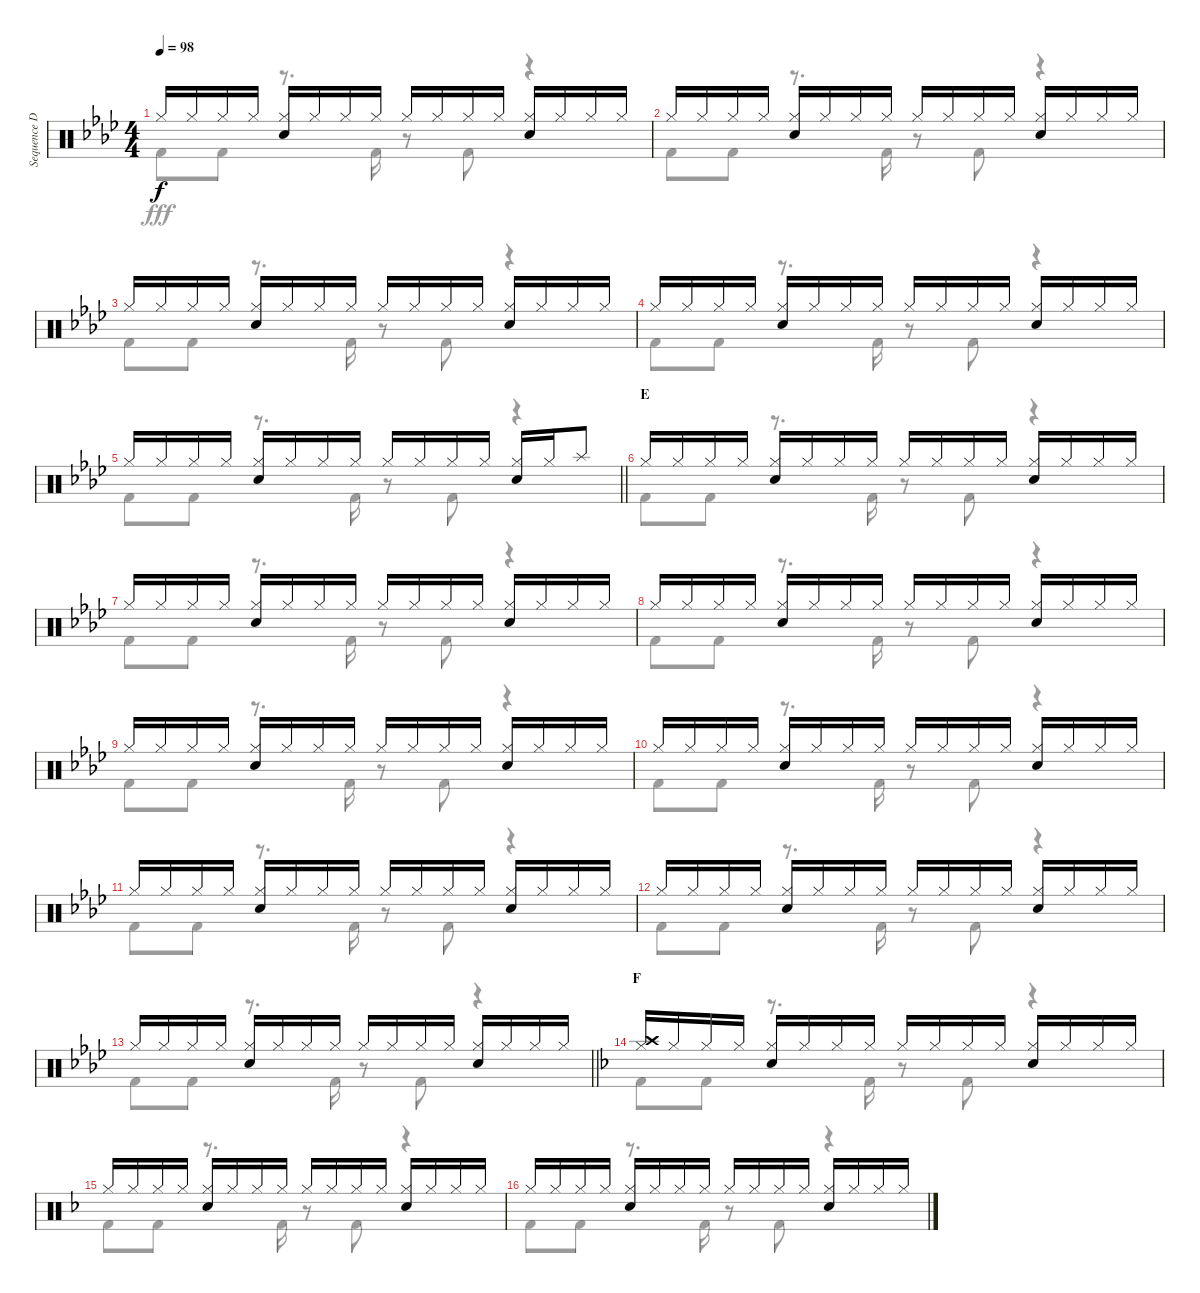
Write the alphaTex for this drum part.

\track ("Sequence Drums I" "Sequence D") {instrument percussion}
\staff {score}
\articulation defaults
\voice
\ts (4 4)
\tempo 98
\clef neutral
\ks ab "Hi-Hat (closed)".16{dy f} "Hi-Hat (closed)".16 "Hi-Hat (closed)".16 "Hi-Hat (closed)".16
("Hi-Hat (closed)" "Electric Snare (hit)").16 "Hi-Hat (closed)".16 "Hi-Hat (closed)".16 "Hi-Hat (closed)".16 "Hi-Hat (closed)".16 "Hi-Hat (closed)".16 "Hi-Hat (closed)".16 "Hi-Hat (closed)".16 ("Hi-Hat (closed)" "Electric Snare (hit)").16 "Hi-Hat (closed)".16 "Hi-Hat (closed)".16 "Hi-Hat (closed)".16 |
"Hi-Hat (closed)".16 "Hi-Hat (closed)".16 "Hi-Hat (closed)".16 "Hi-Hat (closed)".16 ("Hi-Hat (closed)" "Electric Snare (hit)").16 "Hi-Hat (closed)".16 "Hi-Hat (closed)".16 "Hi-Hat (closed)".16 "Hi-Hat (closed)".16 "Hi-Hat (closed)".16 "Hi-Hat (closed)".16 "Hi-Hat (closed)".16 ("Hi-Hat (closed)" "Electric Snare (hit)").16 "Hi-Hat (closed)".16 "Hi-Hat (closed)".16 "Hi-Hat (closed)".16 |
"Hi-Hat (closed)".16 "Hi-Hat (closed)".16 "Hi-Hat (closed)".16 "Hi-Hat (closed)".16 ("Hi-Hat (closed)" "Electric Snare (hit)").16 "Hi-Hat (closed)".16 "Hi-Hat (closed)".16 "Hi-Hat (closed)".16 "Hi-Hat (closed)".16 "Hi-Hat (closed)".16 "Hi-Hat (closed)".16 "Hi-Hat (closed)".16 ("Hi-Hat (closed)" "Electric Snare (hit)").16 "Hi-Hat (closed)".16 "Hi-Hat (closed)".16 "Hi-Hat (closed)".16 |
"Hi-Hat (closed)".16 "Hi-Hat (closed)".16 "Hi-Hat (closed)".16 "Hi-Hat (closed)".16 ("Hi-Hat (closed)" "Electric Snare (hit)").16 "Hi-Hat (closed)".16 "Hi-Hat (closed)".16 "Hi-Hat (closed)".16 "Hi-Hat (closed)".16 "Hi-Hat (closed)".16 "Hi-Hat (closed)".16 "Hi-Hat (closed)".16 ("Hi-Hat (closed)" "Electric Snare (hit)").16 "Hi-Hat (closed)".16 "Hi-Hat (closed)".16 "Hi-Hat (closed)".16 |
\barLineRight lightlight "Hi-Hat (closed)".16 "Hi-Hat (closed)".16 "Hi-Hat (closed)".16 "Hi-Hat (closed)".16
("Hi-Hat (closed)" "Electric Snare (hit)").16 "Hi-Hat (closed)".16 "Hi-Hat (closed)".16 "Hi-Hat (closed)".16 "Hi-Hat (closed)".16 "Hi-Hat (closed)".16 "Hi-Hat (closed)".16 "Hi-Hat (closed)".16 ("Hi-Hat (closed)" "Electric Snare (hit)").16 "Hi-Hat (closed)".16 "Splash (hit)".8 |
\section ("" "E")
"Hi-Hat (closed)".16 "Hi-Hat (closed)".16 "Hi-Hat (closed)".16 "Hi-Hat (closed)".16 ("Hi-Hat (closed)" "Electric Snare (hit)").16 "Hi-Hat (closed)".16 "Hi-Hat (closed)".16 "Hi-Hat (closed)".16 "Hi-Hat (closed)".16 "Hi-Hat (closed)".16 "Hi-Hat (closed)".16 "Hi-Hat (closed)".16 ("Hi-Hat (closed)" "Electric Snare (hit)").16 "Hi-Hat (closed)".16 "Hi-Hat (closed)".16 "Hi-Hat (closed)".16 |
"Hi-Hat (closed)".16 "Hi-Hat (closed)".16 "Hi-Hat (closed)".16 "Hi-Hat (closed)".16 ("Hi-Hat (closed)" "Electric Snare (hit)").16 "Hi-Hat (closed)".16 "Hi-Hat (closed)".16 "Hi-Hat (closed)".16 "Hi-Hat (closed)".16 "Hi-Hat (closed)".16 "Hi-Hat (closed)".16 "Hi-Hat (closed)".16 ("Hi-Hat (closed)" "Electric Snare (hit)").16 "Hi-Hat (closed)".16 "Hi-Hat (closed)".16 "Hi-Hat (closed)".16 |
"Hi-Hat (closed)".16 "Hi-Hat (closed)".16 "Hi-Hat (closed)".16 "Hi-Hat (closed)".16 ("Hi-Hat (closed)" "Electric Snare (hit)").16 "Hi-Hat (closed)".16 "Hi-Hat (closed)".16 "Hi-Hat (closed)".16 "Hi-Hat (closed)".16 "Hi-Hat (closed)".16 "Hi-Hat (closed)".16 "Hi-Hat (closed)".16 ("Hi-Hat (closed)" "Electric Snare (hit)").16 "Hi-Hat (closed)".16 "Hi-Hat (closed)".16 "Hi-Hat (closed)".16 |
"Hi-Hat (closed)".16 "Hi-Hat (closed)".16 "Hi-Hat (closed)".16 "Hi-Hat (closed)".16 ("Hi-Hat (closed)" "Electric Snare (hit)").16 "Hi-Hat (closed)".16 "Hi-Hat (closed)".16 "Hi-Hat (closed)".16 "Hi-Hat (closed)".16 "Hi-Hat (closed)".16 "Hi-Hat (closed)".16 "Hi-Hat (closed)".16 ("Hi-Hat (closed)" "Electric Snare (hit)").16 "Hi-Hat (closed)".16 "Hi-Hat (closed)".16 "Hi-Hat (closed)".16 |
"Hi-Hat (closed)".16 "Hi-Hat (closed)".16 "Hi-Hat (closed)".16 "Hi-Hat (closed)".16 ("Hi-Hat (closed)" "Electric Snare (hit)").16 "Hi-Hat (closed)".16 "Hi-Hat (closed)".16 "Hi-Hat (closed)".16 "Hi-Hat (closed)".16 "Hi-Hat (closed)".16 "Hi-Hat (closed)".16 "Hi-Hat (closed)".16 ("Hi-Hat (closed)" "Electric Snare (hit)").16 "Hi-Hat (closed)".16 "Hi-Hat (closed)".16 "Hi-Hat (closed)".16 |
"Hi-Hat (closed)".16 "Hi-Hat (closed)".16 "Hi-Hat (closed)".16 "Hi-Hat (closed)".16 ("Hi-Hat (closed)" "Electric Snare (hit)").16 "Hi-Hat (closed)".16 "Hi-Hat (closed)".16 "Hi-Hat (closed)".16 "Hi-Hat (closed)".16 "Hi-Hat (closed)".16 "Hi-Hat (closed)".16 "Hi-Hat (closed)".16 ("Hi-Hat (closed)" "Electric Snare (hit)").16 "Hi-Hat (closed)".16 "Hi-Hat (closed)".16 "Hi-Hat (closed)".16 |
"Hi-Hat (closed)".16 "Hi-Hat (closed)".16 "Hi-Hat (closed)".16 "Hi-Hat (closed)".16 ("Hi-Hat (closed)" "Electric Snare (hit)").16 "Hi-Hat (closed)".16 "Hi-Hat (closed)".16 "Hi-Hat (closed)".16 "Hi-Hat (closed)".16 "Hi-Hat (closed)".16 "Hi-Hat (closed)".16 "Hi-Hat (closed)".16 ("Hi-Hat (closed)" "Electric Snare (hit)").16 "Hi-Hat (closed)".16 "Hi-Hat (closed)".16 "Hi-Hat (closed)".16 |
\barLineRight lightlight "Hi-Hat (closed)".16 "Hi-Hat (closed)".16 "Hi-Hat (closed)".16 "Hi-Hat (closed)".16
("Hi-Hat (closed)" "Electric Snare (hit)").16 "Hi-Hat (closed)".16 "Hi-Hat (closed)".16 "Hi-Hat (closed)".16 "Hi-Hat (closed)".16 "Hi-Hat (closed)".16 "Hi-Hat (closed)".16 "Hi-Hat (closed)".16 ("Hi-Hat (closed)" "Electric Snare (hit)").16 "Hi-Hat (closed)".16 "Hi-Hat (closed)".16 "Hi-Hat (closed)".16 |
\section ("" "F")
\ks f
("Crash high (hit)" "Hi-Hat (closed)").16 "Hi-Hat (closed)".16 "Hi-Hat (closed)".16 "Hi-Hat (closed)".16 ("Hi-Hat (closed)" "Electric Snare (hit)").16 "Hi-Hat (closed)".16 "Hi-Hat (closed)".16 "Hi-Hat (closed)".16 "Hi-Hat (closed)".16 "Hi-Hat (closed)".16 "Hi-Hat (closed)".16 "Hi-Hat (closed)".16 ("Hi-Hat (closed)" "Electric Snare (hit)").16 "Hi-Hat (closed)".16 "Hi-Hat (closed)".16 "Hi-Hat (closed)".16 |
"Hi-Hat (closed)".16 "Hi-Hat (closed)".16 "Hi-Hat (closed)".16 "Hi-Hat (closed)".16 ("Hi-Hat (closed)" "Electric Snare (hit)").16 "Hi-Hat (closed)".16 "Hi-Hat (closed)".16 "Hi-Hat (closed)".16 "Hi-Hat (closed)".16 "Hi-Hat (closed)".16 "Hi-Hat (closed)".16 "Hi-Hat (closed)".16 ("Hi-Hat (closed)" "Electric Snare (hit)").16 "Hi-Hat (closed)".16 "Hi-Hat (closed)".16 "Hi-Hat (closed)".16 |
"Hi-Hat (closed)".16 "Hi-Hat (closed)".16 "Hi-Hat (closed)".16 "Hi-Hat (closed)".16 ("Hi-Hat (closed)" "Electric Snare (hit)").16 "Hi-Hat (closed)".16 "Hi-Hat (closed)".16 "Hi-Hat (closed)".16 "Hi-Hat (closed)".16 "Hi-Hat (closed)".16 "Hi-Hat (closed)".16 "Hi-Hat (closed)".16 ("Hi-Hat (closed)" "Electric Snare (hit)").16 "Hi-Hat (closed)".16 "Hi-Hat (closed)".16 "Hi-Hat (closed)".16
\voice
\clef neutral
\ottava regular
\simile none
\ks ab "Kick (hit) 2".8{dy fff} "Kick (hit) 2".8
r.8{d} "Kick (hit) 2".16 r.8 "Kick (hit) 2".8 r.4 |
"Kick (hit) 2".8 "Kick (hit) 2".8 r.8{d} "Kick (hit) 2".16 r.8 "Kick (hit) 2".8 r.4 |
"Kick (hit) 2".8 "Kick (hit) 2".8 r.8{d} "Kick (hit) 2".16 r.8 "Kick (hit) 2".8 r.4 |
"Kick (hit) 2".8 "Kick (hit) 2".8 r.8{d} "Kick (hit) 2".16 r.8 "Kick (hit) 2".8 r.4 |
\barLineRight lightlight "Kick (hit) 2".8 "Kick (hit) 2".8
r.8{d} "Kick (hit) 2".16 r.8 "Kick (hit) 2".8 r.4 |
"Kick (hit) 2".8 "Kick (hit) 2".8 r.8{d} "Kick (hit) 2".16 r.8 "Kick (hit) 2".8 r.4 |
"Kick (hit) 2".8 "Kick (hit) 2".8 r.8{d} "Kick (hit) 2".16 r.8 "Kick (hit) 2".8 r.4 |
"Kick (hit) 2".8 "Kick (hit) 2".8 r.8{d} "Kick (hit) 2".16 r.8 "Kick (hit) 2".8 r.4 |
"Kick (hit) 2".8 "Kick (hit) 2".8 r.8{d} "Kick (hit) 2".16 r.8 "Kick (hit) 2".8 r.4 |
"Kick (hit) 2".8 "Kick (hit) 2".8 r.8{d} "Kick (hit) 2".16 r.8 "Kick (hit) 2".8 r.4 |
"Kick (hit) 2".8 "Kick (hit) 2".8 r.8{d} "Kick (hit) 2".16 r.8 "Kick (hit) 2".8 r.4 |
"Kick (hit) 2".8 "Kick (hit) 2".8 r.8{d} "Kick (hit) 2".16 r.8 "Kick (hit) 2".8 r.4 |
\barLineRight lightlight "Kick (hit) 2".8 "Kick (hit) 2".8
r.8{d} "Kick (hit) 2".16 r.8 "Kick (hit) 2".8 r.4 |
\ks f "Kick (hit) 2".8 "Kick (hit) 2".8
r.8{d} "Kick (hit) 2".16 r.8 "Kick (hit) 2".8 r.4 |
"Kick (hit) 2".8 "Kick (hit) 2".8 r.8{d} "Kick (hit) 2".16 r.8 "Kick (hit) 2".8 r.4 |
"Kick (hit) 2".8 "Kick (hit) 2".8 r.8{d} "Kick (hit) 2".16 r.8 "Kick (hit) 2".8 r.4
